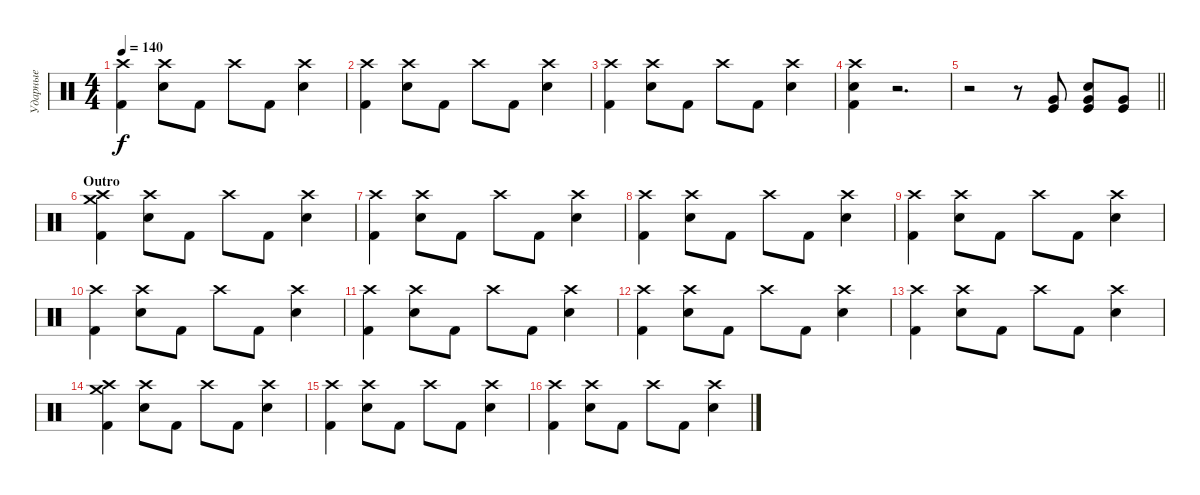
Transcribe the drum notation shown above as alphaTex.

\track ("Ударные" "Ударные") {instrument percussion}
\staff {score}
\articulation defaults
\ts (4 4)
\tempo 140
\clef neutral
\ks c
("Crash high (hit)" "Kick (hit) 2").4{dy f} ("Crash high (hit)" "Electric Snare (hit)").8 "Kick (hit) 2".8 "Crash high (hit)".8 "Kick (hit) 2".8 ("Crash high (hit)" "Electric Snare (hit)").4 |
("Crash high (hit)" "Kick (hit) 2").4 ("Crash high (hit)" "Electric Snare (hit)").8 "Kick (hit) 2".8 "Crash high (hit)".8 "Kick (hit) 2".8 ("Crash high (hit)" "Electric Snare (hit)").4 |
("Crash high (hit)" "Kick (hit) 2").4 ("Crash high (hit)" "Electric Snare (hit)").8 "Kick (hit) 2".8 "Crash high (hit)".8 "Kick (hit) 2".8 ("Crash high (hit)" "Electric Snare (hit)").4 |
("Crash high (hit)" "Electric Snare (hit)" "Kick (hit) 2").4 r.2{d} |
\barLineRight lightlight
r.2 r.8 ("Very Low Tom (hit)" "Kick (hit)").8 ("Very Low Tom (hit)" "Kick (hit)" "Electric Snare (hit)").8 ("Very Low Tom (hit)" "Kick (hit)").8 |
\section ("" "Outro")
("Crash high (hit)" "Crash medium (hit)" "Kick (hit) 2").4 ("Crash high (hit)" "Electric Snare (hit)").8 "Kick (hit) 2".8 "Crash high (hit)".8 "Kick (hit) 2".8 ("Crash high (hit)" "Electric Snare (hit)").4 |
("Crash high (hit)" "Kick (hit) 2").4 ("Crash high (hit)" "Electric Snare (hit)").8 "Kick (hit) 2".8 "Crash high (hit)".8 "Kick (hit) 2".8 ("Crash high (hit)" "Electric Snare (hit)").4 |
("Crash high (hit)" "Kick (hit) 2").4 ("Crash high (hit)" "Electric Snare (hit)").8 "Kick (hit) 2".8 "Crash high (hit)".8 "Kick (hit) 2".8 ("Crash high (hit)" "Electric Snare (hit)").4 |
("Crash high (hit)" "Kick (hit) 2").4 ("Crash high (hit)" "Electric Snare (hit)").8 "Kick (hit) 2".8 "Crash high (hit)".8 "Kick (hit) 2".8 ("Crash high (hit)" "Electric Snare (hit)").4 |
("Crash high (hit)" "Kick (hit) 2").4 ("Crash high (hit)" "Electric Snare (hit)").8 "Kick (hit) 2".8 "Crash high (hit)".8 "Kick (hit) 2".8 ("Crash high (hit)" "Electric Snare (hit)").4 |
("Crash high (hit)" "Kick (hit) 2").4 ("Crash high (hit)" "Electric Snare (hit)").8 "Kick (hit) 2".8 "Crash high (hit)".8 "Kick (hit) 2".8 ("Crash high (hit)" "Electric Snare (hit)").4 |
("Crash high (hit)" "Kick (hit) 2").4 ("Crash high (hit)" "Electric Snare (hit)").8 "Kick (hit) 2".8 "Crash high (hit)".8 "Kick (hit) 2".8 ("Crash high (hit)" "Electric Snare (hit)").4 |
("Crash high (hit)" "Kick (hit) 2").4 ("Crash high (hit)" "Electric Snare (hit)").8 "Kick (hit) 2".8 "Crash high (hit)".8 "Kick (hit) 2".8 ("Crash high (hit)" "Electric Snare (hit)").4 |
("Crash high (hit)" "Crash medium (hit)" "Kick (hit) 2").4 ("Crash high (hit)" "Electric Snare (hit)").8 "Kick (hit) 2".8 "Crash high (hit)".8 "Kick (hit) 2".8 ("Crash high (hit)" "Electric Snare (hit)").4 |
("Crash high (hit)" "Kick (hit) 2").4 ("Crash high (hit)" "Electric Snare (hit)").8 "Kick (hit) 2".8 "Crash high (hit)".8 "Kick (hit) 2".8 ("Crash high (hit)" "Electric Snare (hit)").4 |
("Crash high (hit)" "Kick (hit) 2").4 ("Crash high (hit)" "Electric Snare (hit)").8 "Kick (hit) 2".8 "Crash high (hit)".8 "Kick (hit) 2".8 ("Crash high (hit)" "Electric Snare (hit)").4
